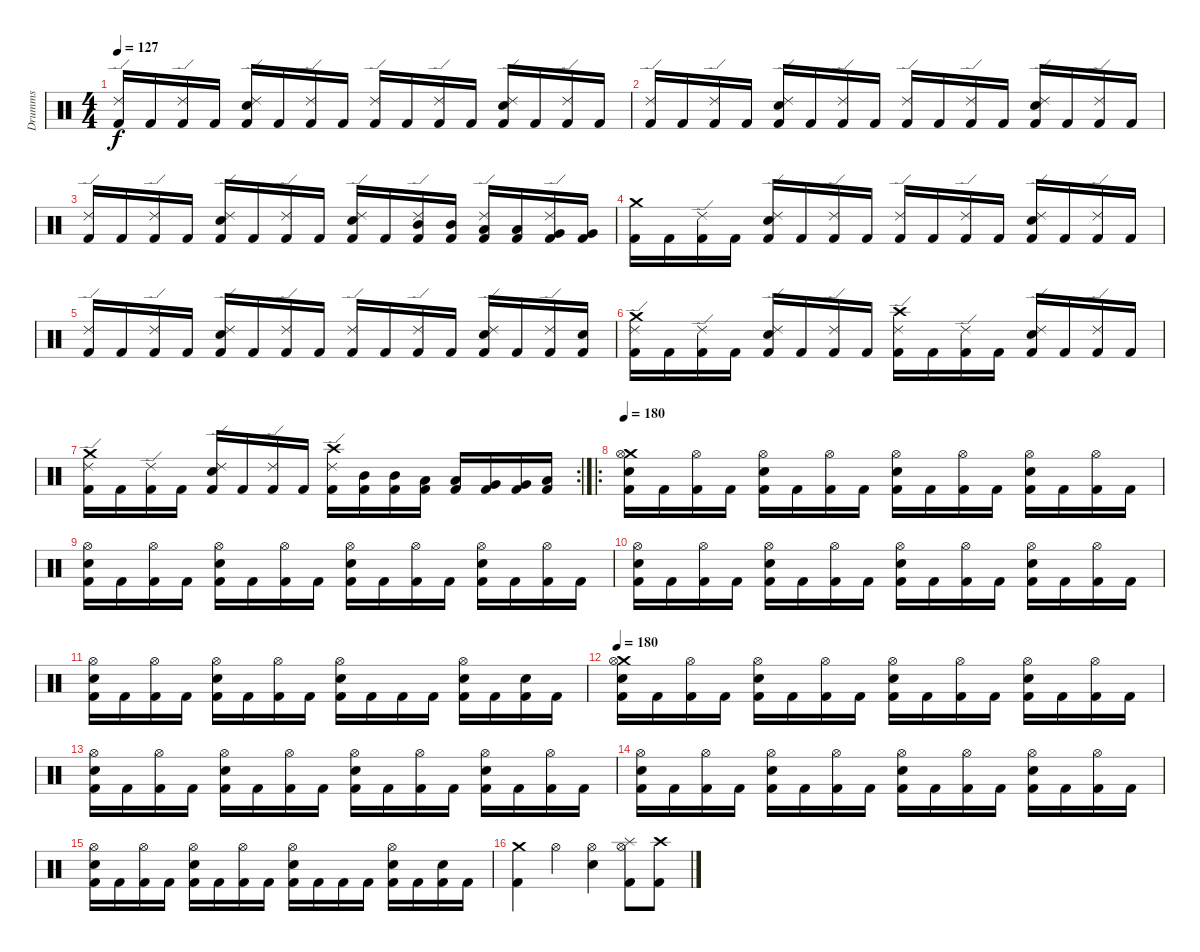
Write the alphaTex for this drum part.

\track ("Drumms" "Drumms") {instrument percussion}
\staff {score}
\articulation defaults
\ts (4 4)
\tempo 127
\clef neutral
\ks c
("Kick (hit) 2" "Ride (edge) 2").16{dy f} "Kick (hit) 2".16 ("Kick (hit) 2" "Ride (edge) 2").16 "Kick (hit) 2".16 ("Kick (hit) 2" "Snare (hit) 2" "Ride (edge) 2").16 "Kick (hit) 2".16 ("Kick (hit) 2" "Ride (edge) 2").16 "Kick (hit) 2".16 ("Kick (hit) 2" "Ride (edge) 2").16 "Kick (hit) 2".16 ("Kick (hit) 2" "Ride (edge) 2").16 "Kick (hit) 2".16 ("Kick (hit) 2" "Snare (hit) 2" "Ride (edge) 2").16 "Kick (hit) 2".16 ("Kick (hit) 2" "Ride (edge) 2").16 "Kick (hit) 2".16 |
("Kick (hit) 2" "Ride (edge) 2").16 "Kick (hit) 2".16 ("Kick (hit) 2" "Ride (edge) 2").16 "Kick (hit) 2".16 ("Kick (hit) 2" "Snare (hit) 2" "Ride (edge) 2").16 "Kick (hit) 2".16 ("Kick (hit) 2" "Ride (edge) 2").16 "Kick (hit) 2".16 ("Kick (hit) 2" "Ride (edge) 2").16 "Kick (hit) 2".16 ("Kick (hit) 2" "Ride (edge) 2").16 "Kick (hit) 2".16 ("Kick (hit) 2" "Snare (hit) 2" "Ride (edge) 2").16 "Kick (hit) 2".16 ("Kick (hit) 2" "Ride (edge) 2").16 "Kick (hit) 2".16 |
("Kick (hit) 2" "Ride (edge) 2").16 "Kick (hit) 2".16 ("Kick (hit) 2" "Ride (edge) 2").16 "Kick (hit) 2".16 ("Kick (hit) 2" "Snare (hit) 2" "Ride (edge) 2").16 "Kick (hit) 2".16 ("Kick (hit) 2" "Ride (edge) 2").16 "Kick (hit) 2".16 ("Kick (hit) 2" "Snare (hit) 2" "Ride (edge) 2").16 "Kick (hit) 2".16 ("Kick (hit) 2" "Mid Tom (hit)" "Ride (edge) 2").16 ("Kick (hit) 2" "Mid Tom (hit)").16 ("Kick (hit) 2" "Low Tom (hit)" "Ride (edge) 2").16 ("Kick (hit) 2" "Low Tom (hit)").16 ("Kick (hit) 2" "Very Low Tom (hit)" "Ride (edge) 2").16 ("Kick (hit) 2" "Very Low Tom (hit)").16 |
("Kick (hit) 2" "Crash medium (hit)").16 "Kick (hit) 2".16 ("Kick (hit) 2" "Ride (edge) 2").16 "Kick (hit) 2".16 ("Kick (hit) 2" "Snare (hit) 2" "Ride (edge) 2").16 "Kick (hit) 2".16 ("Kick (hit) 2" "Ride (edge) 2").16 "Kick (hit) 2".16 ("Kick (hit) 2" "Ride (edge) 2").16 "Kick (hit) 2".16 ("Kick (hit) 2" "Ride (edge) 2").16 "Kick (hit) 2".16 ("Kick (hit) 2" "Snare (hit) 2" "Ride (edge) 2").16 "Kick (hit) 2".16 ("Kick (hit) 2" "Ride (edge) 2").16 "Kick (hit) 2".16 |
("Kick (hit) 2" "Ride (edge) 2").16 "Kick (hit) 2".16 ("Kick (hit) 2" "Ride (edge) 2").16 "Kick (hit) 2".16 ("Kick (hit) 2" "Snare (hit) 2" "Ride (edge) 2").16 "Kick (hit) 2".16 ("Kick (hit) 2" "Ride (edge) 2").16 "Kick (hit) 2".16 ("Kick (hit) 2" "Ride (edge) 2").16 "Kick (hit) 2".16 ("Kick (hit) 2" "Ride (edge) 2").16 "Kick (hit) 2".16 ("Kick (hit) 2" "Snare (hit) 2" "Ride (edge) 2").16 "Kick (hit) 2".16 ("Kick (hit) 2" "Ride (edge) 2").16 ("Kick (hit) 2" "Snare (hit) 2").16 |
("Kick (hit) 2" "Crash medium (hit)" "Ride (edge) 2").16 "Kick (hit) 2".16 ("Kick (hit) 2" "Ride (edge) 2").16 "Kick (hit) 2".16 ("Kick (hit) 2" "Snare (hit) 2" "Ride (edge) 2").16 "Kick (hit) 2".16 ("Kick (hit) 2" "Ride (edge) 2").16 "Kick (hit) 2".16 ("Kick (hit) 2" "Crash high (hit)" "Ride (edge) 2").16 "Kick (hit) 2".16 ("Kick (hit) 2" "Ride (edge) 2").16 "Kick (hit) 2".16 ("Kick (hit) 2" "Snare (hit) 2" "Ride (edge) 2").16 "Kick (hit) 2".16 ("Kick (hit) 2" "Ride (edge) 2").16 "Kick (hit) 2".16 |
\rc 2
("Kick (hit) 2" "Crash medium (hit)" "Ride (edge) 2").16 "Kick (hit) 2".16 ("Kick (hit) 2" "Ride (edge) 2").16 "Kick (hit) 2".16 ("Kick (hit) 2" "Snare (hit) 2" "Ride (edge) 2").16 "Kick (hit) 2".16 ("Kick (hit) 2" "Ride (edge) 2").16 "Kick (hit) 2".16 ("Kick (hit) 2" "Crash high (hit)" "Ride (edge) 2").16 ("Kick (hit) 2" "Mid Tom (hit)").16 ("Kick (hit) 2" "Mid Tom (hit)").16 ("Kick (hit) 2" "Low Tom (hit)").16 ("Kick (hit) 2" "Low Tom (hit)").16 ("Kick (hit) 2" "Very Low Tom (hit)").16 ("Kick (hit) 2" "Very Low Tom (hit)").16 ("Kick (hit) 2" "Low Floor Tom (hit)").16 |
\ro
\tempo 180
("Kick (hit) 2" "Snare (hit) 2" "Crash medium (hit)" "Hi-Hat (open)").16 "Kick (hit) 2".16 ("Kick (hit) 2" "Hi-Hat (open)").16 "Kick (hit) 2".16 ("Kick (hit) 2" "Snare (hit) 2" "Hi-Hat (open)").16 "Kick (hit) 2".16 ("Kick (hit) 2" "Hi-Hat (open)").16 "Kick (hit) 2".16 ("Kick (hit) 2" "Snare (hit) 2" "Hi-Hat (open)").16 "Kick (hit) 2".16 ("Kick (hit) 2" "Hi-Hat (open)").16 "Kick (hit) 2".16 ("Kick (hit) 2" "Snare (hit) 2" "Hi-Hat (open)").16 "Kick (hit) 2".16 ("Kick (hit) 2" "Hi-Hat (open)").16 "Kick (hit) 2".16 |
("Kick (hit) 2" "Snare (hit) 2" "Hi-Hat (open)").16 "Kick (hit) 2".16 ("Kick (hit) 2" "Hi-Hat (open)").16 "Kick (hit) 2".16 ("Kick (hit) 2" "Snare (hit) 2" "Hi-Hat (open)").16 "Kick (hit) 2".16 ("Kick (hit) 2" "Hi-Hat (open)").16 "Kick (hit) 2".16 ("Kick (hit) 2" "Snare (hit) 2" "Hi-Hat (open)").16 "Kick (hit) 2".16 ("Kick (hit) 2" "Hi-Hat (open)").16 "Kick (hit) 2".16 ("Kick (hit) 2" "Snare (hit) 2" "Hi-Hat (open)").16 "Kick (hit) 2".16 ("Kick (hit) 2" "Hi-Hat (open)").16 "Kick (hit) 2".16 |
("Kick (hit) 2" "Snare (hit) 2" "Hi-Hat (open)").16 "Kick (hit) 2".16 ("Kick (hit) 2" "Hi-Hat (open)").16 "Kick (hit) 2".16 ("Kick (hit) 2" "Snare (hit) 2" "Hi-Hat (open)").16 "Kick (hit) 2".16 ("Kick (hit) 2" "Hi-Hat (open)").16 "Kick (hit) 2".16 ("Kick (hit) 2" "Snare (hit) 2" "Hi-Hat (open)").16 "Kick (hit) 2".16 ("Kick (hit) 2" "Hi-Hat (open)").16 "Kick (hit) 2".16 ("Kick (hit) 2" "Snare (hit) 2" "Hi-Hat (open)").16 "Kick (hit) 2".16 ("Kick (hit) 2" "Hi-Hat (open)").16 "Kick (hit) 2".16 |
("Kick (hit) 2" "Snare (hit) 2" "Hi-Hat (open)").16 "Kick (hit) 2".16 ("Kick (hit) 2" "Hi-Hat (open)").16 "Kick (hit) 2".16 ("Kick (hit) 2" "Snare (hit) 2" "Hi-Hat (open)").16 "Kick (hit) 2".16 ("Kick (hit) 2" "Hi-Hat (open)").16 "Kick (hit) 2".16 ("Kick (hit) 2" "Snare (hit) 2" "Hi-Hat (open)").16 "Kick (hit) 2".16 "Kick (hit) 2".16 "Kick (hit) 2".16 ("Kick (hit) 2" "Snare (hit) 2" "Hi-Hat (open)").16 "Kick (hit) 2".16 ("Kick (hit) 2" "Snare (hit) 2").16 "Kick (hit) 2".16 |
\tempo 180
("Kick (hit) 2" "Snare (hit) 2" "Crash medium (hit)" "Hi-Hat (open)").16 "Kick (hit) 2".16 ("Kick (hit) 2" "Hi-Hat (open)").16 "Kick (hit) 2".16 ("Kick (hit) 2" "Snare (hit) 2" "Hi-Hat (open)").16 "Kick (hit) 2".16 ("Kick (hit) 2" "Hi-Hat (open)").16 "Kick (hit) 2".16 ("Kick (hit) 2" "Snare (hit) 2" "Hi-Hat (open)").16 "Kick (hit) 2".16 ("Kick (hit) 2" "Hi-Hat (open)").16 "Kick (hit) 2".16 ("Kick (hit) 2" "Snare (hit) 2" "Hi-Hat (open)").16 "Kick (hit) 2".16 ("Kick (hit) 2" "Hi-Hat (open)").16 "Kick (hit) 2".16 |
("Kick (hit) 2" "Snare (hit) 2" "Hi-Hat (open)").16 "Kick (hit) 2".16 ("Kick (hit) 2" "Hi-Hat (open)").16 "Kick (hit) 2".16 ("Kick (hit) 2" "Snare (hit) 2" "Hi-Hat (open)").16 "Kick (hit) 2".16 ("Kick (hit) 2" "Hi-Hat (open)").16 "Kick (hit) 2".16 ("Kick (hit) 2" "Snare (hit) 2" "Hi-Hat (open)").16 "Kick (hit) 2".16 ("Kick (hit) 2" "Hi-Hat (open)").16 "Kick (hit) 2".16 ("Kick (hit) 2" "Snare (hit) 2" "Hi-Hat (open)").16 "Kick (hit) 2".16 ("Kick (hit) 2" "Hi-Hat (open)").16 "Kick (hit) 2".16 |
("Kick (hit) 2" "Snare (hit) 2" "Hi-Hat (open)").16 "Kick (hit) 2".16 ("Kick (hit) 2" "Hi-Hat (open)").16 "Kick (hit) 2".16 ("Kick (hit) 2" "Snare (hit) 2" "Hi-Hat (open)").16 "Kick (hit) 2".16 ("Kick (hit) 2" "Hi-Hat (open)").16 "Kick (hit) 2".16 ("Kick (hit) 2" "Snare (hit) 2" "Hi-Hat (open)").16 "Kick (hit) 2".16 ("Kick (hit) 2" "Hi-Hat (open)").16 "Kick (hit) 2".16 ("Kick (hit) 2" "Snare (hit) 2" "Hi-Hat (open)").16 "Kick (hit) 2".16 ("Kick (hit) 2" "Hi-Hat (open)").16 "Kick (hit) 2".16 |
("Kick (hit) 2" "Snare (hit) 2" "Hi-Hat (open)").16 "Kick (hit) 2".16 ("Kick (hit) 2" "Hi-Hat (open)").16 "Kick (hit) 2".16 ("Kick (hit) 2" "Snare (hit) 2" "Hi-Hat (open)").16 "Kick (hit) 2".16 ("Kick (hit) 2" "Hi-Hat (open)").16 "Kick (hit) 2".16 ("Kick (hit) 2" "Snare (hit) 2" "Hi-Hat (open)").16 "Kick (hit) 2".16 "Kick (hit) 2".16 "Kick (hit) 2".16 ("Kick (hit) 2" "Snare (hit) 2" "Hi-Hat (open)").16 "Kick (hit) 2".16 ("Kick (hit) 2" "Snare (hit) 2").16 "Kick (hit) 2".16 |
("Kick (hit) 2" "Crash medium (hit)").4 "Hi-Hat (open)".4 ("Snare (hit) 2" "Hi-Hat (open)").4 ("Kick (hit) 2" "Splash (hit)" "Hi-Hat (open)").8 ("Kick (hit) 2" "Crash high (hit)").8
